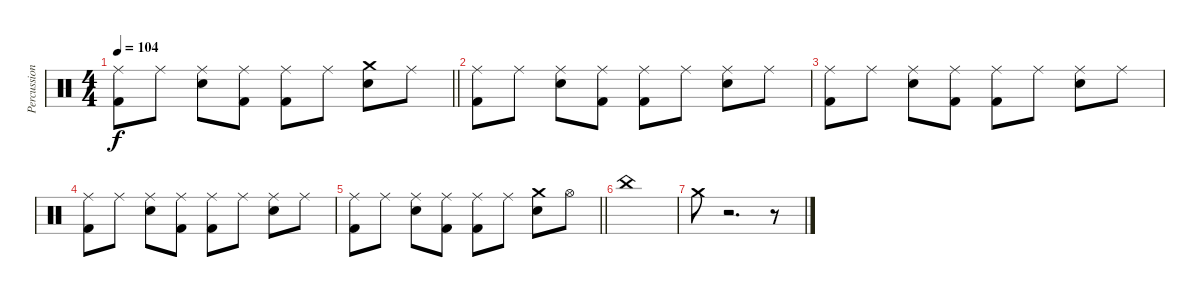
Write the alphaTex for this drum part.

\track ("Percussion" "Percussion") {instrument percussion}
\staff {score}
\articulation defaults
\ts (4 4)
\tempo 104
\clef neutral
\barLineRight lightlight
\ks c
("Kick (hit) 2" "Ride (middle)").8{dy f} "Ride (middle)".8 ("Ride (middle)" "Electric Snare (hit)").8 ("Kick (hit) 2" "Ride (middle)").8 ("Kick (hit) 2" "Ride (middle)").8 "Ride (middle)".8 ("Crash medium (hit)" "Electric Snare (hit)").8 "Ride (middle)".8 |
("Kick (hit) 2" "Ride (middle)").8 "Ride (middle)".8 ("Ride (middle)" "Electric Snare (hit)").8 ("Kick (hit) 2" "Ride (middle)").8 ("Kick (hit) 2" "Ride (middle)").8 "Ride (middle)".8 ("Ride (middle)" "Electric Snare (hit)").8 "Ride (middle)".8 |
("Kick (hit) 2" "Ride (middle)").8 "Ride (middle)".8 ("Ride (middle)" "Electric Snare (hit)").8 ("Kick (hit) 2" "Ride (middle)").8 ("Kick (hit) 2" "Ride (middle)").8 "Ride (middle)".8 ("Ride (middle)" "Electric Snare (hit)").8 "Ride (middle)".8 |
("Kick (hit) 2" "Ride (middle)").8 "Ride (middle)".8 ("Ride (middle)" "Electric Snare (hit)").8 ("Kick (hit) 2" "Ride (middle)").8 ("Kick (hit) 2" "Ride (middle)").8 "Ride (middle)".8 ("Ride (middle)" "Electric Snare (hit)").8 "Ride (middle)".8 |
\barLineRight lightlight
("Kick (hit) 2" "Ride (middle)").8 "Ride (middle)".8 ("Ride (middle)" "Electric Snare (hit)").8 ("Kick (hit) 2" "Ride (middle)").8 ("Kick (hit) 2" "Ride (middle)").8 "Ride (middle)".8 ("Crash medium (hit)" "Electric Snare (hit)").8 "Hi-Hat (open)".8 |
"China (hit)".1 |
"Crash medium (hit)".8 r.2{d} r.8
